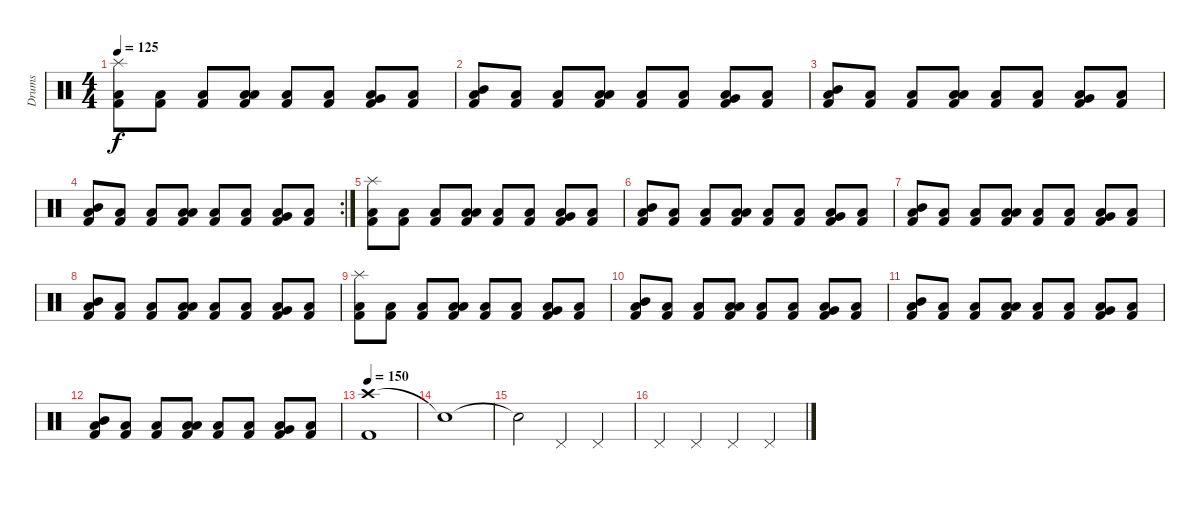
\track ("Drums" "Drums") {instrument percussion}
\staff {score}
\articulation defaults
\ts (4 4)
\tempo 125
\clef neutral
\ks c
("Splash (hit)" "Low Floor Tom (hit)" "Kick (hit) 2").8{dy f} ("Low Floor Tom (hit)" "Kick (hit) 2").8 ("Low Floor Tom (hit)" "Kick (hit) 2").8 ("Low Tom (hit)" "Low Floor Tom (hit)" "Kick (hit) 2").8 ("Low Floor Tom (hit)" "Kick (hit) 2").8 ("Low Floor Tom (hit)" "Kick (hit) 2").8 ("Very Low Tom (hit)" "Low Floor Tom (hit)" "Kick (hit) 2").8 ("Low Floor Tom (hit)" "Kick (hit) 2").8 |
("Mid Tom (hit)" "Low Floor Tom (hit)" "Kick (hit) 2").8 ("Low Floor Tom (hit)" "Kick (hit) 2").8 ("Low Floor Tom (hit)" "Kick (hit) 2").8 ("Low Tom (hit)" "Low Floor Tom (hit)" "Kick (hit) 2").8 ("Low Floor Tom (hit)" "Kick (hit) 2").8 ("Low Floor Tom (hit)" "Kick (hit) 2").8 ("Very Low Tom (hit)" "Low Floor Tom (hit)" "Kick (hit) 2").8 ("Low Floor Tom (hit)" "Kick (hit) 2").8 |
("Mid Tom (hit)" "Low Floor Tom (hit)" "Kick (hit) 2").8 ("Low Floor Tom (hit)" "Kick (hit) 2").8 ("Low Floor Tom (hit)" "Kick (hit) 2").8 ("Low Tom (hit)" "Low Floor Tom (hit)" "Kick (hit) 2").8 ("Low Floor Tom (hit)" "Kick (hit) 2").8 ("Low Floor Tom (hit)" "Kick (hit) 2").8 ("Very Low Tom (hit)" "Low Floor Tom (hit)" "Kick (hit) 2").8 ("Low Floor Tom (hit)" "Kick (hit) 2").8 |
\rc 2
("Mid Tom (hit)" "Low Floor Tom (hit)" "Kick (hit) 2").8 ("Low Floor Tom (hit)" "Kick (hit) 2").8 ("Low Floor Tom (hit)" "Kick (hit) 2").8 ("Low Tom (hit)" "Low Floor Tom (hit)" "Kick (hit) 2").8 ("Low Floor Tom (hit)" "Kick (hit) 2").8 ("Low Floor Tom (hit)" "Kick (hit) 2").8 ("Very Low Tom (hit)" "Low Floor Tom (hit)" "Kick (hit) 2").8 ("Low Floor Tom (hit)" "Kick (hit) 2").8 |
("Splash (hit)" "Low Floor Tom (hit)" "Kick (hit) 2").8 ("Low Floor Tom (hit)" "Kick (hit) 2").8 ("Low Floor Tom (hit)" "Kick (hit) 2").8 ("Low Tom (hit)" "Low Floor Tom (hit)" "Kick (hit) 2").8 ("Low Floor Tom (hit)" "Kick (hit) 2").8 ("Low Floor Tom (hit)" "Kick (hit) 2").8 ("Very Low Tom (hit)" "Low Floor Tom (hit)" "Kick (hit) 2").8 ("Low Floor Tom (hit)" "Kick (hit) 2").8 |
("Mid Tom (hit)" "Low Floor Tom (hit)" "Kick (hit) 2").8 ("Low Floor Tom (hit)" "Kick (hit) 2").8 ("Low Floor Tom (hit)" "Kick (hit) 2").8 ("Low Tom (hit)" "Low Floor Tom (hit)" "Kick (hit) 2").8 ("Low Floor Tom (hit)" "Kick (hit) 2").8 ("Low Floor Tom (hit)" "Kick (hit) 2").8 ("Very Low Tom (hit)" "Low Floor Tom (hit)" "Kick (hit) 2").8 ("Low Floor Tom (hit)" "Kick (hit) 2").8 |
("Mid Tom (hit)" "Low Floor Tom (hit)" "Kick (hit) 2").8 ("Low Floor Tom (hit)" "Kick (hit) 2").8 ("Low Floor Tom (hit)" "Kick (hit) 2").8 ("Low Tom (hit)" "Low Floor Tom (hit)" "Kick (hit) 2").8 ("Low Floor Tom (hit)" "Kick (hit) 2").8 ("Low Floor Tom (hit)" "Kick (hit) 2").8 ("Very Low Tom (hit)" "Low Floor Tom (hit)" "Kick (hit) 2").8 ("Low Floor Tom (hit)" "Kick (hit) 2").8 |
("Mid Tom (hit)" "Low Floor Tom (hit)" "Kick (hit) 2").8 ("Low Floor Tom (hit)" "Kick (hit) 2").8 ("Low Floor Tom (hit)" "Kick (hit) 2").8 ("Low Tom (hit)" "Low Floor Tom (hit)" "Kick (hit) 2").8 ("Low Floor Tom (hit)" "Kick (hit) 2").8 ("Low Floor Tom (hit)" "Kick (hit) 2").8 ("Very Low Tom (hit)" "Low Floor Tom (hit)" "Kick (hit) 2").8 ("Low Floor Tom (hit)" "Kick (hit) 2").8 |
("Splash (hit)" "Low Floor Tom (hit)" "Kick (hit) 2").8 ("Low Floor Tom (hit)" "Kick (hit) 2").8 ("Low Floor Tom (hit)" "Kick (hit) 2").8 ("Low Tom (hit)" "Low Floor Tom (hit)" "Kick (hit) 2").8 ("Low Floor Tom (hit)" "Kick (hit) 2").8 ("Low Floor Tom (hit)" "Kick (hit) 2").8 ("Very Low Tom (hit)" "Low Floor Tom (hit)" "Kick (hit) 2").8 ("Low Floor Tom (hit)" "Kick (hit) 2").8 |
("Mid Tom (hit)" "Low Floor Tom (hit)" "Kick (hit) 2").8 ("Low Floor Tom (hit)" "Kick (hit) 2").8 ("Low Floor Tom (hit)" "Kick (hit) 2").8 ("Low Tom (hit)" "Low Floor Tom (hit)" "Kick (hit) 2").8 ("Low Floor Tom (hit)" "Kick (hit) 2").8 ("Low Floor Tom (hit)" "Kick (hit) 2").8 ("Very Low Tom (hit)" "Low Floor Tom (hit)" "Kick (hit) 2").8 ("Low Floor Tom (hit)" "Kick (hit) 2").8 |
("Mid Tom (hit)" "Low Floor Tom (hit)" "Kick (hit) 2").8 ("Low Floor Tom (hit)" "Kick (hit) 2").8 ("Low Floor Tom (hit)" "Kick (hit) 2").8 ("Low Tom (hit)" "Low Floor Tom (hit)" "Kick (hit) 2").8 ("Low Floor Tom (hit)" "Kick (hit) 2").8 ("Low Floor Tom (hit)" "Kick (hit) 2").8 ("Very Low Tom (hit)" "Low Floor Tom (hit)" "Kick (hit) 2").8 ("Low Floor Tom (hit)" "Kick (hit) 2").8 |
("Mid Tom (hit)" "Low Floor Tom (hit)" "Kick (hit) 2").8 ("Low Floor Tom (hit)" "Kick (hit) 2").8 ("Low Floor Tom (hit)" "Kick (hit) 2").8 ("Low Tom (hit)" "Low Floor Tom (hit)" "Kick (hit) 2").8 ("Low Floor Tom (hit)" "Kick (hit) 2").8 ("Low Floor Tom (hit)" "Kick (hit) 2").8 ("Very Low Tom (hit)" "Low Floor Tom (hit)" "Kick (hit) 2").8 ("Low Floor Tom (hit)" "Kick (hit) 2").8 |
\tempo 150
("Crash high (hit)" "Kick (hit) 2").1 |
"Snare (hit)"{t}.1 |
"Snare (hit)"{t}.2 "Pedal Hi-Hat (hit)".4 "Pedal Hi-Hat (hit)".4 |
"Pedal Hi-Hat (hit)".4 "Pedal Hi-Hat (hit)".4 "Pedal Hi-Hat (hit)".4 "Pedal Hi-Hat (hit)".4
